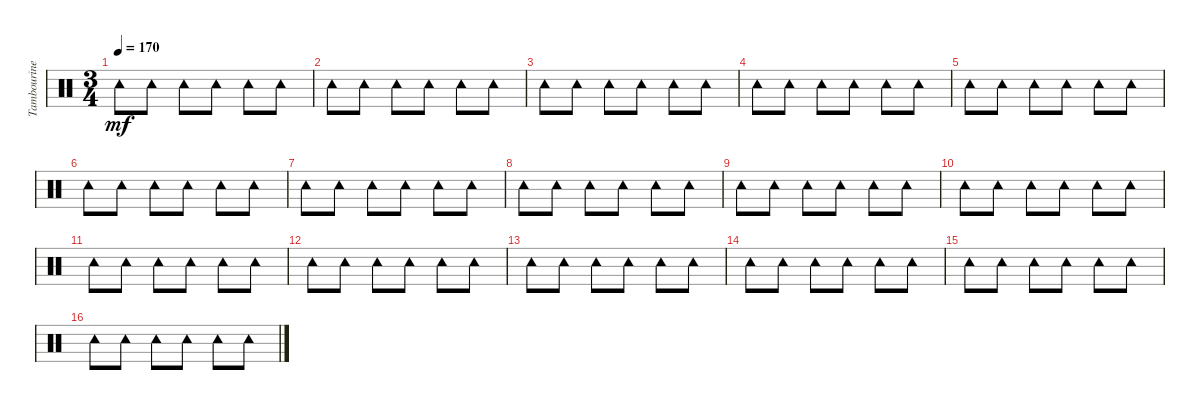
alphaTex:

\track ("Tambourine" "Tambourine") {instrument percussion}
\staff {score}
\articulation defaults
\ts (3 4)
\tempo 170
\clef neutral
\ks c "Tambourine (hit)".8{dy mf} "Tambourine (hit)".8 "Tambourine (hit)".8 "Tambourine (hit)".8 "Tambourine (hit)".8 "Tambourine (hit)".8
|
"Tambourine (hit)".8 "Tambourine (hit)".8 "Tambourine (hit)".8 "Tambourine (hit)".8 "Tambourine (hit)".8 "Tambourine (hit)".8 |
"Tambourine (hit)".8 "Tambourine (hit)".8 "Tambourine (hit)".8 "Tambourine (hit)".8 "Tambourine (hit)".8 "Tambourine (hit)".8 |
"Tambourine (hit)".8 "Tambourine (hit)".8 "Tambourine (hit)".8 "Tambourine (hit)".8 "Tambourine (hit)".8 "Tambourine (hit)".8 |
"Tambourine (hit)".8 "Tambourine (hit)".8 "Tambourine (hit)".8 "Tambourine (hit)".8 "Tambourine (hit)".8 "Tambourine (hit)".8 |
"Tambourine (hit)".8 "Tambourine (hit)".8 "Tambourine (hit)".8 "Tambourine (hit)".8 "Tambourine (hit)".8 "Tambourine (hit)".8 |
"Tambourine (hit)".8 "Tambourine (hit)".8 "Tambourine (hit)".8 "Tambourine (hit)".8 "Tambourine (hit)".8 "Tambourine (hit)".8 |
"Tambourine (hit)".8 "Tambourine (hit)".8 "Tambourine (hit)".8 "Tambourine (hit)".8 "Tambourine (hit)".8 "Tambourine (hit)".8 |
"Tambourine (hit)".8 "Tambourine (hit)".8 "Tambourine (hit)".8 "Tambourine (hit)".8 "Tambourine (hit)".8 "Tambourine (hit)".8 |
"Tambourine (hit)".8 "Tambourine (hit)".8 "Tambourine (hit)".8 "Tambourine (hit)".8 "Tambourine (hit)".8 "Tambourine (hit)".8 |
"Tambourine (hit)".8 "Tambourine (hit)".8 "Tambourine (hit)".8 "Tambourine (hit)".8 "Tambourine (hit)".8 "Tambourine (hit)".8 |
"Tambourine (hit)".8 "Tambourine (hit)".8 "Tambourine (hit)".8 "Tambourine (hit)".8 "Tambourine (hit)".8 "Tambourine (hit)".8 |
"Tambourine (hit)".8 "Tambourine (hit)".8 "Tambourine (hit)".8 "Tambourine (hit)".8 "Tambourine (hit)".8 "Tambourine (hit)".8 |
"Tambourine (hit)".8 "Tambourine (hit)".8 "Tambourine (hit)".8 "Tambourine (hit)".8 "Tambourine (hit)".8 "Tambourine (hit)".8 |
"Tambourine (hit)".8 "Tambourine (hit)".8 "Tambourine (hit)".8 "Tambourine (hit)".8 "Tambourine (hit)".8 "Tambourine (hit)".8 |
"Tambourine (hit)".8 "Tambourine (hit)".8 "Tambourine (hit)".8 "Tambourine (hit)".8 "Tambourine (hit)".8 "Tambourine (hit)".8
